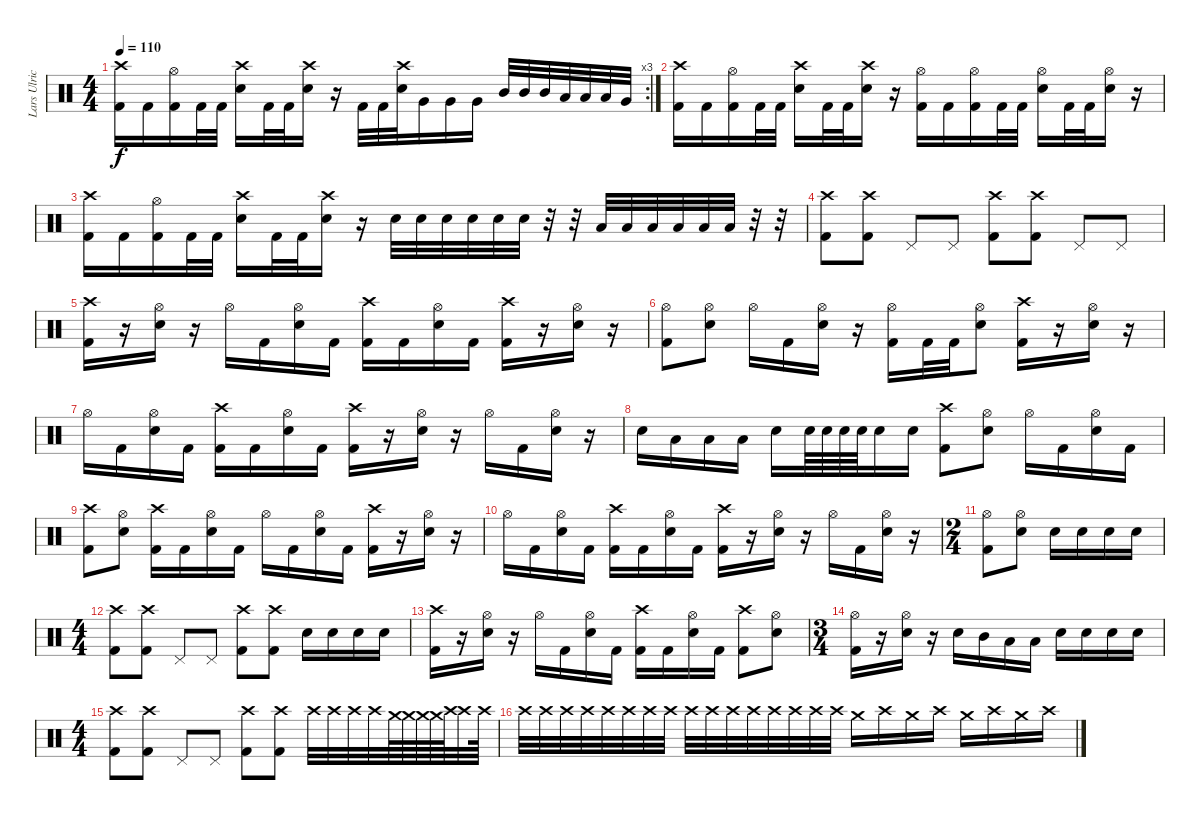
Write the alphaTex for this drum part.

\track ("Lars Ulrich" "Lars Ulric") {instrument percussion}
\staff {score}
\articulation defaults
\rc 3
\ts (4 4)
\tempo 110
\clef neutral
\ks c
("Crash high (hit)" "Kick (hit) 2").16{dy f} "Kick (hit) 2".16 ("Hi-Hat (open)" "Kick (hit) 2").16 "Kick (hit) 2".32 "Kick (hit) 2".32 ("Crash high (hit)" "Snare (hit) 2").16 "Kick (hit) 2".32 "Kick (hit) 2".32 ("Crash high (hit)" "Snare (hit) 2").16 r.16 "Kick (hit) 2".32 "Kick (hit) 2".32 ("Crash high (hit)" "Snare (hit) 2").32 "Very Low Tom (hit)".16 "Very Low Tom (hit)".16 "Very Low Tom (hit)".16 "Mid Tom (hit)".32 "Mid Tom (hit)".32 "Mid Tom (hit)".32 "Low Tom (hit)".32 "Low Tom (hit)".32 "Low Tom (hit)".32 "Very Low Tom (hit)".32 |
("Crash high (hit)" "Kick (hit) 2").16 "Kick (hit) 2".16 ("Hi-Hat (open)" "Kick (hit) 2").16 "Kick (hit) 2".32 "Kick (hit) 2".32 ("Crash high (hit)" "Snare (hit) 2").16 "Kick (hit) 2".32 "Kick (hit) 2".32 ("Crash high (hit)" "Snare (hit) 2").16 r.16 ("Hi-Hat (open)" "Kick (hit) 2").16 "Kick (hit) 2".16 ("Hi-Hat (open)" "Kick (hit) 2").16 "Kick (hit) 2".32 "Kick (hit) 2".32 ("Hi-Hat (open)" "Snare (hit) 2").16 "Kick (hit) 2".32 "Kick (hit) 2".32 ("Hi-Hat (open)" "Snare (hit) 2").16 r.16 |
("Crash high (hit)" "Kick (hit) 2").16 "Kick (hit) 2".16 ("Hi-Hat (open)" "Kick (hit) 2").16 "Kick (hit) 2".32 "Kick (hit) 2".32 ("Crash high (hit)" "Snare (hit) 2").16 "Kick (hit) 2".32 "Kick (hit) 2".32 ("Crash high (hit)" "Snare (hit) 2").16 r.16 "Snare (hit) 2".32 "Snare (hit) 2".32 "Snare (hit) 2".32 "Snare (hit) 2".32 "Snare (hit) 2".32 "Snare (hit) 2".32 r.32 r.32 "Low Tom (hit)".32 "Low Tom (hit)".32 "Low Tom (hit)".32 "Low Tom (hit)".32 "Low Tom (hit)".32 "Low Tom (hit)".32 r.32 r.32 |
("Crash high (hit)" "Kick (hit) 2").8 ("Crash high (hit)" "Kick (hit) 2").8 "Pedal Hi-Hat (hit)".8 "Pedal Hi-Hat (hit)".8 ("Crash high (hit)" "Kick (hit) 2").8 ("Crash high (hit)" "Kick (hit) 2").8 "Pedal Hi-Hat (hit)".8 "Pedal Hi-Hat (hit)".8 |
("Crash high (hit)" "Kick (hit) 2").16 r.16 ("Hi-Hat (open)" "Snare (hit) 2").16 r.16 "Hi-Hat (open)".16 "Kick (hit) 2".16 ("Hi-Hat (open)" "Snare (hit) 2").16 "Kick (hit) 2".16 ("Crash high (hit)" "Kick (hit) 2").16 "Kick (hit) 2".16 ("Hi-Hat (open)" "Snare (hit) 2").16 "Kick (hit) 2".16 ("Crash high (hit)" "Kick (hit) 2").16 r.16 ("Hi-Hat (open)" "Snare (hit) 2").16 r.16 |
("Hi-Hat (open)" "Kick (hit) 2").8 ("Hi-Hat (open)" "Snare (hit) 2").8 "Hi-Hat (open)".16 "Kick (hit) 2".16 ("Hi-Hat (open)" "Snare (hit) 2").16 r.16 ("Hi-Hat (open)" "Kick (hit) 2").16 "Kick (hit) 2".32 "Kick (hit) 2".32 ("Hi-Hat (open)" "Snare (hit) 2").8 ("Crash high (hit)" "Kick (hit) 2").16 r.16 ("Hi-Hat (open)" "Snare (hit) 2").16 r.16 |
"Hi-Hat (open)".16 "Kick (hit) 2".16 ("Hi-Hat (open)" "Snare (hit) 2").16 "Kick (hit) 2".16 ("Crash high (hit)" "Kick (hit) 2").16 "Kick (hit) 2".16 ("Hi-Hat (open)" "Snare (hit) 2").16 "Kick (hit) 2".16 ("Crash high (hit)" "Kick (hit) 2").16 r.16 ("Hi-Hat (open)" "Snare (hit) 2").16 r.16 "Hi-Hat (open)".16 "Kick (hit) 2".16 ("Hi-Hat (open)" "Snare (hit) 2").16 r.16 |
"Snare (hit) 2".16 "Low Tom (hit)".16 "Low Tom (hit)".16 "Low Tom (hit)".16 "Snare (hit) 2".16 "Snare (hit) 2".64 "Snare (hit) 2".64 "Snare (hit) 2".64 "Snare (hit) 2".64 "Snare (hit) 2".16 "Snare (hit) 2".16 ("Crash high (hit)" "Kick (hit) 2").8 ("Hi-Hat (open)" "Snare (hit) 2").8 "Hi-Hat (open)".16 "Kick (hit) 2".16 ("Hi-Hat (open)" "Snare (hit) 2").16 "Kick (hit) 2".16 |
("Crash high (hit)" "Kick (hit) 2").8 ("Hi-Hat (open)" "Snare (hit) 2").8 ("Crash high (hit)" "Kick (hit) 2").16 "Kick (hit) 2".16 ("Hi-Hat (open)" "Snare (hit) 2").16 "Kick (hit) 2".16 "Hi-Hat (open)".16 "Kick (hit) 2".16 ("Hi-Hat (open)" "Snare (hit) 2").16 "Kick (hit) 2".16 ("Crash high (hit)" "Kick (hit) 2").16 r.16 ("Hi-Hat (open)" "Snare (hit) 2").16 r.16 |
"Hi-Hat (open)".16 "Kick (hit) 2".16 ("Hi-Hat (open)" "Snare (hit) 2").16 "Kick (hit) 2".16 ("Crash high (hit)" "Kick (hit) 2").16 "Kick (hit) 2".16 ("Hi-Hat (open)" "Snare (hit) 2").16 "Kick (hit) 2".16 ("Crash high (hit)" "Kick (hit) 2").16 r.16 ("Hi-Hat (open)" "Snare (hit) 2").16 r.16 "Hi-Hat (open)".16 "Kick (hit) 2".16 ("Hi-Hat (open)" "Snare (hit) 2").16 r.16 |
\ts (2 4)
("Hi-Hat (open)" "Kick (hit) 2").8 ("Hi-Hat (open)" "Snare (hit) 2").8 "Snare (hit) 2".16 "Snare (hit) 2".16 "Snare (hit) 2".16 "Snare (hit) 2".16 |
\ts (4 4)
("Crash high (hit)" "Kick (hit) 2").8 ("Crash high (hit)" "Kick (hit) 2").8 "Pedal Hi-Hat (hit)".8 "Pedal Hi-Hat (hit)".8 ("Crash high (hit)" "Kick (hit) 2").8 ("Crash high (hit)" "Kick (hit) 2").8 "Snare (hit) 2".16 "Snare (hit) 2".16 "Snare (hit) 2".16 "Snare (hit) 2".16 |
("Crash high (hit)" "Kick (hit) 2").16 r.16 ("Hi-Hat (open)" "Snare (hit) 2").16 r.16 "Hi-Hat (open)".16 "Kick (hit) 2".16 ("Hi-Hat (open)" "Snare (hit) 2").16 "Kick (hit) 2".16 ("Crash high (hit)" "Kick (hit) 2").16 "Kick (hit) 2".16 ("Hi-Hat (open)" "Snare (hit) 2").16 "Kick (hit) 2".16 ("Crash high (hit)" "Kick (hit) 2").8 ("Hi-Hat (open)" "Snare (hit) 2").8 |
\ts (3 4)
("Hi-Hat (open)" "Kick (hit) 2").16 r.16 ("Hi-Hat (open)" "Snare (hit) 2").16 r.16 "Snare (hit) 2".16 "Mid Tom (hit)".16 "Low Tom (hit)".16 "Low Tom (hit)".16 "Snare (hit) 2".16 "Snare (hit) 2".16 "Snare (hit) 2".16 "Snare (hit) 2".16 |
\ts (4 4)
("Crash high (hit)" "Kick (hit) 2").8 ("Crash high (hit)" "Kick (hit) 2").8 "Pedal Hi-Hat (hit)".8 "Pedal Hi-Hat (hit)".8 ("Crash high (hit)" "Kick (hit) 2").8 ("Crash high (hit)" "Kick (hit) 2").8 "Crash high (hit)".32 "Crash high (hit)".32 "Crash high (hit)".32 "Crash high (hit)".32 "Crash medium (hit)".64 "Crash medium (hit)".64 "Crash medium (hit)".64 "Crash medium (hit)".64 "Crash high (hit)".64 "Crash high (hit)".32 "Crash high (hit)".64 |
"Crash high (hit)".32 "Crash high (hit)".32 "Crash high (hit)".32 "Crash high (hit)".32 "Crash high (hit)".32 "Crash high (hit)".32 "Crash high (hit)".32 "Crash high (hit)".32 "Crash high (hit)".32 "Crash high (hit)".32 "Crash high (hit)".32 "Crash high (hit)".32 "Crash high (hit)".32 "Crash high (hit)".32 "Crash high (hit)".32 "Crash high (hit)".32 "Crash medium (hit)".16 "Crash high (hit)".16 "Crash medium (hit)".16 "Crash high (hit)".16 "Crash medium (hit)".16 "Crash high (hit)".16 "Crash medium (hit)".16 "Crash high (hit)".16
